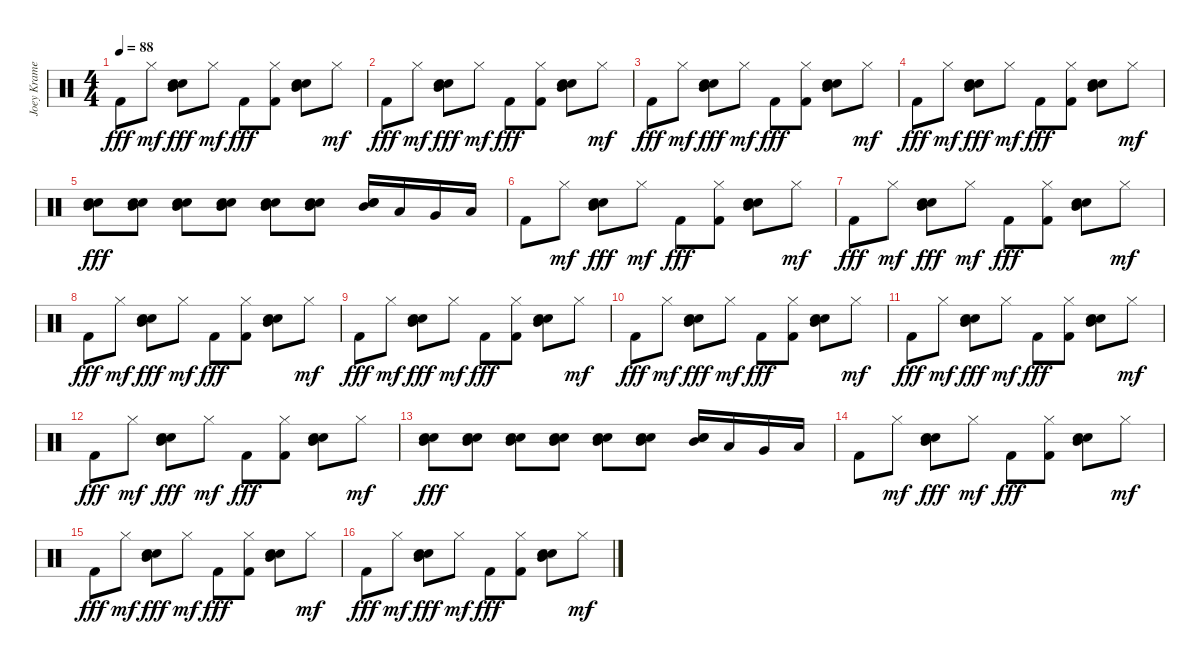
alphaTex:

\track ("Joey Kramer" "Joey Krame") {instrument percussion}
\staff {score}
\articulation defaults
\ts (4 4)
\tempo 88
\clef neutral
\ks c "Kick (hit) 2".8{dy fff} "Hi-Hat (closed)".8{dy mf}
("Snare (hit) 2" "Electric Snare (hit)" "Mid Tom (hit)").8{dy fff} "Hi-Hat (closed)".8{dy mf} "Kick (hit) 2".8{dy fff} ("Hi-Hat (closed)" "Kick (hit) 2").8 ("Snare (hit) 2" "Electric Snare (hit)" "Mid Tom (hit)").8 "Hi-Hat (closed)".8{dy mf} |
"Kick (hit) 2".8{dy fff} "Hi-Hat (closed)".8{dy mf} ("Snare (hit) 2" "Electric Snare (hit)" "Mid Tom (hit)").8{dy fff} "Hi-Hat (closed)".8{dy mf} "Kick (hit) 2".8{dy fff} ("Hi-Hat (closed)" "Kick (hit) 2").8 ("Snare (hit) 2" "Electric Snare (hit)" "Mid Tom (hit)").8 "Hi-Hat (closed)".8{dy mf} |
"Kick (hit) 2".8{dy fff} "Hi-Hat (closed)".8{dy mf} ("Snare (hit) 2" "Electric Snare (hit)" "Mid Tom (hit)").8{dy fff} "Hi-Hat (closed)".8{dy mf} "Kick (hit) 2".8{dy fff} ("Hi-Hat (closed)" "Kick (hit) 2").8 ("Snare (hit) 2" "Electric Snare (hit)" "Mid Tom (hit)").8 "Hi-Hat (closed)".8{dy mf} |
"Kick (hit) 2".8{dy fff} "Hi-Hat (closed)".8{dy mf} ("Snare (hit) 2" "Electric Snare (hit)" "Mid Tom (hit)").8{dy fff} "Hi-Hat (closed)".8{dy mf} "Kick (hit) 2".8{dy fff} ("Hi-Hat (closed)" "Kick (hit) 2").8 ("Snare (hit) 2" "Electric Snare (hit)" "Mid Tom (hit)").8 "Hi-Hat (closed)".8{dy mf} |
("Snare (hit) 2" "Electric Snare (hit)" "Mid Tom (hit)").8{dy fff} ("Snare (hit) 2" "Electric Snare (hit)" "Mid Tom (hit)").8 ("Snare (hit) 2" "Electric Snare (hit)" "Mid Tom (hit)").8 ("Snare (hit) 2" "Electric Snare (hit)" "Mid Tom (hit)").8 ("Snare (hit) 2" "Electric Snare (hit)" "Mid Tom (hit)").8 ("Snare (hit) 2" "Electric Snare (hit)" "Mid Tom (hit)").8 ("Snare (hit) 2" "Electric Snare (hit)" "Mid Tom (hit)").16 "Low Tom (hit)".16 "Very Low Tom (hit)".16 "Low Floor Tom (hit)".16 |
"Kick (hit) 2".8 "Hi-Hat (closed)".8{dy mf} ("Snare (hit) 2" "Electric Snare (hit)" "Mid Tom (hit)").8{dy fff} "Hi-Hat (closed)".8{dy mf} "Kick (hit) 2".8{dy fff} ("Hi-Hat (closed)" "Kick (hit) 2").8 ("Snare (hit) 2" "Electric Snare (hit)" "Mid Tom (hit)").8 "Hi-Hat (closed)".8{dy mf} |
"Kick (hit) 2".8{dy fff} "Hi-Hat (closed)".8{dy mf} ("Snare (hit) 2" "Electric Snare (hit)" "Mid Tom (hit)").8{dy fff} "Hi-Hat (closed)".8{dy mf} "Kick (hit) 2".8{dy fff} ("Hi-Hat (closed)" "Kick (hit) 2").8 ("Snare (hit) 2" "Electric Snare (hit)" "Mid Tom (hit)").8 "Hi-Hat (closed)".8{dy mf} |
"Kick (hit) 2".8{dy fff} "Hi-Hat (closed)".8{dy mf} ("Snare (hit) 2" "Electric Snare (hit)" "Mid Tom (hit)").8{dy fff} "Hi-Hat (closed)".8{dy mf} "Kick (hit) 2".8{dy fff} ("Hi-Hat (closed)" "Kick (hit) 2").8 ("Snare (hit) 2" "Electric Snare (hit)" "Mid Tom (hit)").8 "Hi-Hat (closed)".8{dy mf} |
"Kick (hit) 2".8{dy fff} "Hi-Hat (closed)".8{dy mf} ("Snare (hit) 2" "Electric Snare (hit)" "Mid Tom (hit)").8{dy fff} "Hi-Hat (closed)".8{dy mf} "Kick (hit) 2".8{dy fff} ("Hi-Hat (closed)" "Kick (hit) 2").8 ("Snare (hit) 2" "Electric Snare (hit)" "Mid Tom (hit)").8 "Hi-Hat (closed)".8{dy mf} |
"Kick (hit) 2".8{dy fff} "Hi-Hat (closed)".8{dy mf} ("Snare (hit) 2" "Electric Snare (hit)" "Mid Tom (hit)").8{dy fff} "Hi-Hat (closed)".8{dy mf} "Kick (hit) 2".8{dy fff} ("Hi-Hat (closed)" "Kick (hit) 2").8 ("Snare (hit) 2" "Electric Snare (hit)" "Mid Tom (hit)").8 "Hi-Hat (closed)".8{dy mf} |
"Kick (hit) 2".8{dy fff} "Hi-Hat (closed)".8{dy mf} ("Snare (hit) 2" "Electric Snare (hit)" "Mid Tom (hit)").8{dy fff} "Hi-Hat (closed)".8{dy mf} "Kick (hit) 2".8{dy fff} ("Hi-Hat (closed)" "Kick (hit) 2").8 ("Snare (hit) 2" "Electric Snare (hit)" "Mid Tom (hit)").8 "Hi-Hat (closed)".8{dy mf} |
"Kick (hit) 2".8{dy fff} "Hi-Hat (closed)".8{dy mf} ("Snare (hit) 2" "Electric Snare (hit)" "Mid Tom (hit)").8{dy fff} "Hi-Hat (closed)".8{dy mf} "Kick (hit) 2".8{dy fff} ("Hi-Hat (closed)" "Kick (hit) 2").8 ("Snare (hit) 2" "Electric Snare (hit)" "Mid Tom (hit)").8 "Hi-Hat (closed)".8{dy mf} |
("Snare (hit) 2" "Electric Snare (hit)" "Mid Tom (hit)").8{dy fff} ("Snare (hit) 2" "Electric Snare (hit)" "Mid Tom (hit)").8 ("Snare (hit) 2" "Electric Snare (hit)" "Mid Tom (hit)").8 ("Snare (hit) 2" "Electric Snare (hit)" "Mid Tom (hit)").8 ("Snare (hit) 2" "Electric Snare (hit)" "Mid Tom (hit)").8 ("Snare (hit) 2" "Electric Snare (hit)" "Mid Tom (hit)").8 ("Snare (hit) 2" "Electric Snare (hit)" "Mid Tom (hit)").16 "Low Tom (hit)".16 "Very Low Tom (hit)".16 "Low Floor Tom (hit)".16 |
"Kick (hit) 2".8 "Hi-Hat (closed)".8{dy mf} ("Snare (hit) 2" "Electric Snare (hit)" "Mid Tom (hit)").8{dy fff} "Hi-Hat (closed)".8{dy mf} "Kick (hit) 2".8{dy fff} ("Hi-Hat (closed)" "Kick (hit) 2").8 ("Snare (hit) 2" "Electric Snare (hit)" "Mid Tom (hit)").8 "Hi-Hat (closed)".8{dy mf} |
"Kick (hit) 2".8{dy fff} "Hi-Hat (closed)".8{dy mf} ("Snare (hit) 2" "Electric Snare (hit)" "Mid Tom (hit)").8{dy fff} "Hi-Hat (closed)".8{dy mf} "Kick (hit) 2".8{dy fff} ("Hi-Hat (closed)" "Kick (hit) 2").8 ("Snare (hit) 2" "Electric Snare (hit)" "Mid Tom (hit)").8 "Hi-Hat (closed)".8{dy mf} |
"Kick (hit) 2".8{dy fff} "Hi-Hat (closed)".8{dy mf} ("Snare (hit) 2" "Electric Snare (hit)" "Mid Tom (hit)").8{dy fff} "Hi-Hat (closed)".8{dy mf} "Kick (hit) 2".8{dy fff} ("Hi-Hat (closed)" "Kick (hit) 2").8 ("Snare (hit) 2" "Electric Snare (hit)" "Mid Tom (hit)").8 "Hi-Hat (closed)".8{dy mf}
